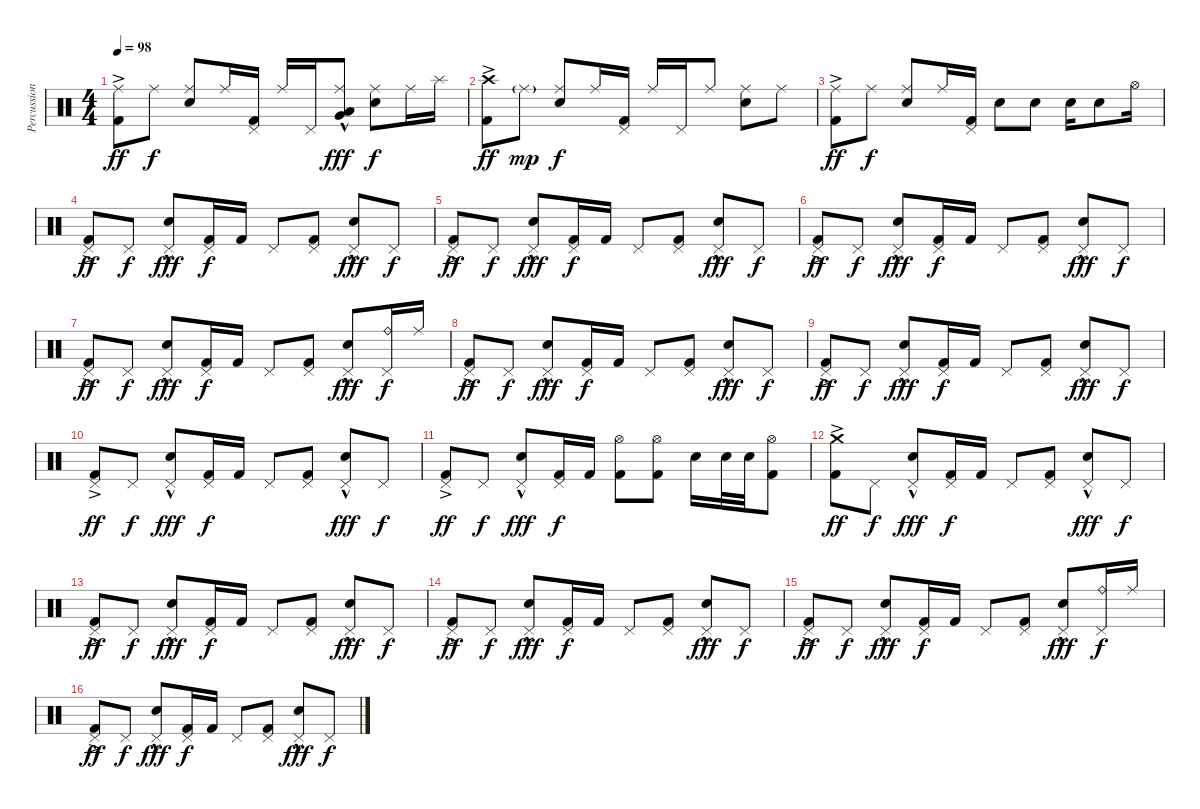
\track ("Percussion" "Percussion") {instrument percussion}
\staff {score}
\articulation defaults
\ts (4 4)
\tempo 98
\clef neutral
\ks c
("Ride (middle)" "Kick (hit) 2"{ac}).8{dy ff} "Ride (middle)".8{dy f} ("Ride (middle)" "Electric Snare (hit)").8 "Ride (middle)".16 ("Pedal Hi-Hat (hit)" "Kick (hit) 2").16 "Ride (middle)".16 "Pedal Hi-Hat (hit)".16 ("Ride (middle)" "Low Floor Tom (hit)" "Very Low Tom (hit)"{hac}).8{dy fff} ("Ride (middle)" "Electric Snare (hit)").8{dy f} "Ride (middle)".16 "Splash (hit)".16 |
("Crash high (hit)" "Kick (hit) 2"{ac}).8{dy ff} "Ride (middle)"{g}.8{dy mp} ("Ride (middle)" "Electric Snare (hit)").8{dy f} "Ride (middle)".16 ("Pedal Hi-Hat (hit)" "Kick (hit) 2").16 "Ride (middle)".16 "Pedal Hi-Hat (hit)".16 "Ride (middle)".8 ("Ride (middle)" "Electric Snare (hit)").8 "Ride (middle)".8 |
("Ride (middle)" "Kick (hit) 2"{ac}).8{dy ff} "Ride (middle)".8{dy f} ("Ride (middle)" "Electric Snare (hit)").8 "Ride (middle)".16 ("Pedal Hi-Hat (hit)" "Kick (hit) 2").16 "Electric Snare (hit)".8 "Electric Snare (hit)".8 "Electric Snare (hit)".16 "Electric Snare (hit)".8 "Hi-Hat (open)".16 |
("Pedal Hi-Hat (hit)" "Kick (hit) 2"{ac}).8{dy ff} "Pedal Hi-Hat (hit)".8{dy f} ("Pedal Hi-Hat (hit)"{hac} "Electric Snare (hit)").8{dy fff} ("Pedal Hi-Hat (hit)" "Kick (hit) 2").16{dy f} "Kick (hit) 2".16 "Pedal Hi-Hat (hit)".8 ("Pedal Hi-Hat (hit)" "Kick (hit) 2").8 ("Pedal Hi-Hat (hit)"{hac} "Electric Snare (hit)").8{dy fff} "Pedal Hi-Hat (hit)".8{dy f} |
("Pedal Hi-Hat (hit)"{ac} "Kick (hit) 2").8{dy ff} "Pedal Hi-Hat (hit)".8{dy f} ("Pedal Hi-Hat (hit)"{hac} "Electric Snare (hit)").8{dy fff} ("Pedal Hi-Hat (hit)" "Kick (hit) 2").16{dy f} "Kick (hit) 2".16 "Pedal Hi-Hat (hit)".8 ("Pedal Hi-Hat (hit)" "Kick (hit) 2").8 ("Pedal Hi-Hat (hit)"{hac} "Electric Snare (hit)").8{dy fff} "Pedal Hi-Hat (hit)".8{dy f} |
("Pedal Hi-Hat (hit)"{ac} "Kick (hit) 2").8{dy ff} "Pedal Hi-Hat (hit)".8{dy f} ("Pedal Hi-Hat (hit)"{hac} "Electric Snare (hit)").8{dy fff} ("Pedal Hi-Hat (hit)" "Kick (hit) 2").16{dy f} "Kick (hit) 2".16 "Pedal Hi-Hat (hit)".8 ("Pedal Hi-Hat (hit)" "Kick (hit) 2").8 ("Pedal Hi-Hat (hit)"{hac} "Electric Snare (hit)").8{dy fff} "Pedal Hi-Hat (hit)".8{dy f} |
("Pedal Hi-Hat (hit)"{ac} "Kick (hit) 2").8{dy ff} "Pedal Hi-Hat (hit)".8{dy f} ("Pedal Hi-Hat (hit)"{hac} "Electric Snare (hit)").8{dy fff} ("Pedal Hi-Hat (hit)" "Kick (hit) 2").16{dy f} "Kick (hit) 2".16 "Pedal Hi-Hat (hit)".8 ("Pedal Hi-Hat (hit)" "Kick (hit) 2").8 ("Pedal Hi-Hat (hit)"{hac} "Electric Snare (hit)").8{dy fff} ("Pedal Hi-Hat (hit)" "Ride (bell)").16{dy f} "Ride (middle)".16 |
("Pedal Hi-Hat (hit)" "Kick (hit) 2"{ac}).8{dy ff} "Pedal Hi-Hat (hit)".8{dy f} ("Pedal Hi-Hat (hit)"{hac} "Electric Snare (hit)").8{dy fff} ("Pedal Hi-Hat (hit)" "Kick (hit) 2").16{dy f} "Kick (hit) 2".16 "Pedal Hi-Hat (hit)".8 ("Pedal Hi-Hat (hit)" "Kick (hit) 2").8 ("Pedal Hi-Hat (hit)"{hac} "Electric Snare (hit)").8{dy fff} "Pedal Hi-Hat (hit)".8{dy f} |
("Pedal Hi-Hat (hit)"{ac} "Kick (hit) 2").8{dy ff} "Pedal Hi-Hat (hit)".8{dy f} ("Pedal Hi-Hat (hit)"{hac} "Electric Snare (hit)").8{dy fff} ("Pedal Hi-Hat (hit)" "Kick (hit) 2").16{dy f} "Kick (hit) 2".16 "Pedal Hi-Hat (hit)".8 ("Pedal Hi-Hat (hit)" "Kick (hit) 2").8 ("Pedal Hi-Hat (hit)"{hac} "Electric Snare (hit)").8{dy fff} "Pedal Hi-Hat (hit)".8{dy f} |
("Pedal Hi-Hat (hit)"{ac} "Kick (hit) 2").8{dy ff} "Pedal Hi-Hat (hit)".8{dy f} ("Pedal Hi-Hat (hit)"{hac} "Electric Snare (hit)").8{dy fff} ("Pedal Hi-Hat (hit)" "Kick (hit) 2").16{dy f} "Kick (hit) 2".16 "Pedal Hi-Hat (hit)".8 ("Pedal Hi-Hat (hit)" "Kick (hit) 2").8 ("Pedal Hi-Hat (hit)"{hac} "Electric Snare (hit)").8{dy fff} "Pedal Hi-Hat (hit)".8{dy f} |
("Pedal Hi-Hat (hit)"{ac} "Kick (hit) 2").8{dy ff} "Pedal Hi-Hat (hit)".8{dy f} ("Pedal Hi-Hat (hit)"{hac} "Electric Snare (hit)").8{dy fff} ("Pedal Hi-Hat (hit)" "Kick (hit) 2").16{dy f} "Kick (hit) 2".16 ("Hi-Hat (open)" "Kick (hit) 2").8 ("Hi-Hat (open)" "Kick (hit) 2").8 "Electric Snare (hit)".16 "Electric Snare (hit)".32 "Electric Snare (hit)".32 ("Hi-Hat (open)" "Kick (hit) 2").8 |
("Crash medium (hit)" "Kick (hit) 2"{ac}).8{dy ff} "Pedal Hi-Hat (hit)".8{dy f} ("Pedal Hi-Hat (hit)"{hac} "Electric Snare (hit)").8{dy fff} ("Pedal Hi-Hat (hit)" "Kick (hit) 2").16{dy f} "Kick (hit) 2".16 "Pedal Hi-Hat (hit)".8 ("Pedal Hi-Hat (hit)" "Kick (hit) 2").8 ("Pedal Hi-Hat (hit)"{hac} "Electric Snare (hit)").8{dy fff} "Pedal Hi-Hat (hit)".8{dy f} |
("Pedal Hi-Hat (hit)"{ac} "Kick (hit) 2").8{dy ff} "Pedal Hi-Hat (hit)".8{dy f} ("Pedal Hi-Hat (hit)"{hac} "Electric Snare (hit)").8{dy fff} ("Pedal Hi-Hat (hit)" "Kick (hit) 2").16{dy f} "Kick (hit) 2".16 "Pedal Hi-Hat (hit)".8 ("Pedal Hi-Hat (hit)" "Kick (hit) 2").8 ("Pedal Hi-Hat (hit)"{hac} "Electric Snare (hit)").8{dy fff} "Pedal Hi-Hat (hit)".8{dy f} |
("Pedal Hi-Hat (hit)"{ac} "Kick (hit) 2").8{dy ff} "Pedal Hi-Hat (hit)".8{dy f} ("Pedal Hi-Hat (hit)"{hac} "Electric Snare (hit)").8{dy fff} ("Pedal Hi-Hat (hit)" "Kick (hit) 2").16{dy f} "Kick (hit) 2".16 "Pedal Hi-Hat (hit)".8 ("Pedal Hi-Hat (hit)" "Kick (hit) 2").8 ("Pedal Hi-Hat (hit)"{hac} "Electric Snare (hit)").8{dy fff} "Pedal Hi-Hat (hit)".8{dy f} |
("Pedal Hi-Hat (hit)"{ac} "Kick (hit) 2").8{dy ff} "Pedal Hi-Hat (hit)".8{dy f} ("Pedal Hi-Hat (hit)"{hac} "Electric Snare (hit)").8{dy fff} ("Pedal Hi-Hat (hit)" "Kick (hit) 2").16{dy f} "Kick (hit) 2".16 "Pedal Hi-Hat (hit)".8 ("Pedal Hi-Hat (hit)" "Kick (hit) 2").8 ("Pedal Hi-Hat (hit)"{hac} "Electric Snare (hit)").8{dy fff} ("Pedal Hi-Hat (hit)" "Ride (bell)").16{dy f} "Ride (middle)".16 |
("Pedal Hi-Hat (hit)" "Kick (hit) 2"{ac}).8{dy ff} "Pedal Hi-Hat (hit)".8{dy f} ("Pedal Hi-Hat (hit)"{hac} "Electric Snare (hit)").8{dy fff} ("Pedal Hi-Hat (hit)" "Kick (hit) 2").16{dy f} "Kick (hit) 2".16 "Pedal Hi-Hat (hit)".8 ("Pedal Hi-Hat (hit)" "Kick (hit) 2").8 ("Pedal Hi-Hat (hit)"{hac} "Electric Snare (hit)").8{dy fff} "Pedal Hi-Hat (hit)".8{dy f}
